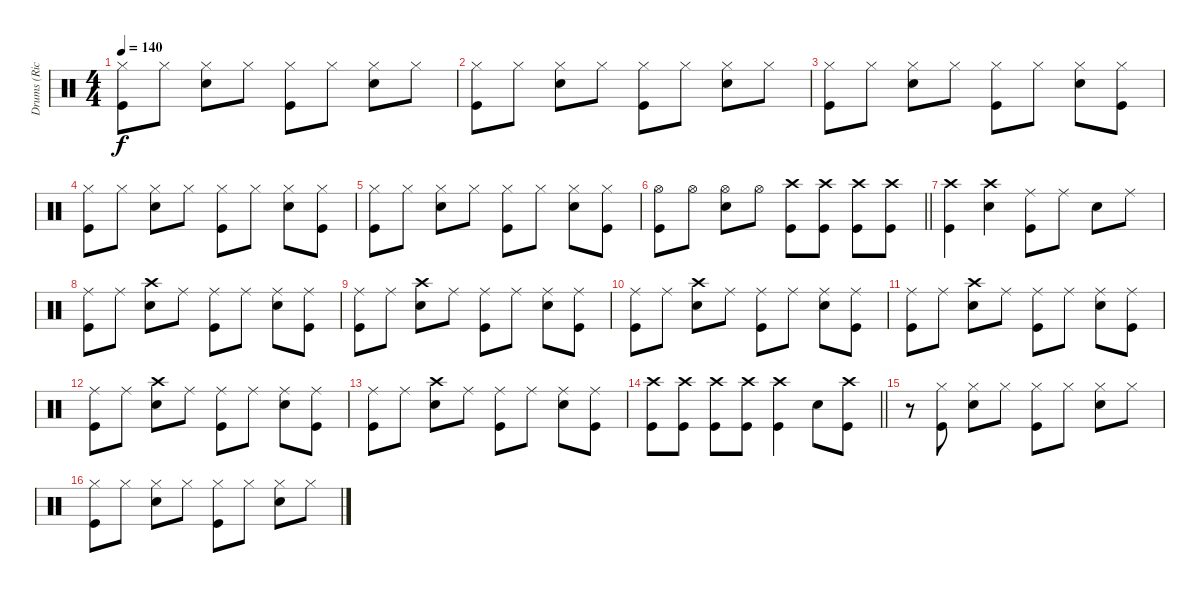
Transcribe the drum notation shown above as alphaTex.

\track ("Drums (Rick)" "Drums (Ric") {instrument percussion}
\staff {score}
\articulation defaults
\ts (4 4)
\tempo 140
\clef neutral
\ks aminor
("Hi-Hat (closed)" "Kick (hit)").8{dy f} "Hi-Hat (closed)".8 ("Hi-Hat (closed)" "Snare (hit) 2").8 "Hi-Hat (closed)".8 ("Hi-Hat (closed)" "Kick (hit)").8 "Hi-Hat (closed)".8 ("Hi-Hat (closed)" "Snare (hit) 2").8 "Hi-Hat (closed)".8 |
("Hi-Hat (closed)" "Kick (hit)").8 "Hi-Hat (closed)".8 ("Hi-Hat (closed)" "Snare (hit) 2").8 "Hi-Hat (closed)".8 ("Hi-Hat (closed)" "Kick (hit)").8 "Hi-Hat (closed)".8 ("Hi-Hat (closed)" "Snare (hit) 2").8 "Hi-Hat (closed)".8 |
("Hi-Hat (closed)" "Kick (hit)").8 "Hi-Hat (closed)".8 ("Hi-Hat (closed)" "Snare (hit) 2").8 "Hi-Hat (closed)".8 ("Hi-Hat (closed)" "Kick (hit)").8 "Hi-Hat (closed)".8 ("Hi-Hat (closed)" "Snare (hit) 2").8 ("Hi-Hat (closed)" "Kick (hit)").8 |
("Hi-Hat (closed)" "Kick (hit)").8 "Hi-Hat (closed)".8 ("Hi-Hat (closed)" "Snare (hit) 2").8 "Hi-Hat (closed)".8 ("Hi-Hat (closed)" "Kick (hit)").8 "Hi-Hat (closed)".8 ("Hi-Hat (closed)" "Snare (hit) 2").8 ("Hi-Hat (closed)" "Kick (hit)").8 |
("Hi-Hat (closed)" "Kick (hit)").8 "Hi-Hat (closed)".8 ("Hi-Hat (closed)" "Snare (hit) 2").8 "Hi-Hat (closed)".8 ("Hi-Hat (closed)" "Kick (hit)").8 "Hi-Hat (closed)".8 ("Hi-Hat (closed)" "Snare (hit) 2").8 ("Hi-Hat (closed)" "Kick (hit)").8 |
\barLineRight lightlight
("Hi-Hat (open)" "Kick (hit)").8 "Hi-Hat (open)".8 ("Hi-Hat (open)" "Snare (hit) 2").8 "Hi-Hat (open)".8 ("Crash high (hit)" "Kick (hit)").8 ("Crash high (hit)" "Kick (hit)").8 ("Crash high (hit)" "Kick (hit)").8 ("Crash high (hit)" "Kick (hit)").8 |
("Crash high (hit)" "Kick (hit)").4 ("Crash high (hit)" "Snare (hit) 2").4 ("Ride (middle)" "Kick (hit)").8 "Ride (middle)".8 "Snare (hit) 2".8 "Ride (middle)".8 |
("Ride (middle)" "Kick (hit)").8 "Ride (middle)".8 ("Crash high (hit)" "Snare (hit) 2").8 "Ride (middle)".8 ("Ride (middle)" "Kick (hit)").8 "Ride (middle)".8 ("Ride (middle)" "Snare (hit) 2").8 ("Ride (middle)" "Kick (hit)").8 |
("Ride (middle)" "Kick (hit)").8 "Ride (middle)".8 ("Crash high (hit)" "Snare (hit) 2").8 "Ride (middle)".8 ("Ride (middle)" "Kick (hit)").8 "Ride (middle)".8 ("Ride (middle)" "Snare (hit) 2").8 ("Ride (middle)" "Kick (hit)").8 |
("Ride (middle)" "Kick (hit)").8 "Ride (middle)".8 ("Crash high (hit)" "Snare (hit) 2").8 "Ride (middle)".8 ("Ride (middle)" "Kick (hit)").8 "Ride (middle)".8 ("Ride (middle)" "Snare (hit) 2").8 ("Ride (middle)" "Kick (hit)").8 |
("Ride (middle)" "Kick (hit)").8 "Ride (middle)".8 ("Crash high (hit)" "Snare (hit) 2").8 "Ride (middle)".8 ("Ride (middle)" "Kick (hit)").8 "Ride (middle)".8 ("Ride (middle)" "Snare (hit) 2").8 ("Ride (middle)" "Kick (hit)").8 |
("Ride (middle)" "Kick (hit)").8 "Ride (middle)".8 ("Crash high (hit)" "Snare (hit) 2").8 "Ride (middle)".8 ("Ride (middle)" "Kick (hit)").8 "Ride (middle)".8 ("Ride (middle)" "Snare (hit) 2").8 ("Ride (middle)" "Kick (hit)").8 |
("Ride (middle)" "Kick (hit)").8 "Ride (middle)".8 ("Crash high (hit)" "Snare (hit) 2").8 "Ride (middle)".8 ("Ride (middle)" "Kick (hit)").8 "Ride (middle)".8 ("Ride (middle)" "Snare (hit) 2").8 ("Ride (middle)" "Kick (hit)").8 |
\barLineRight lightlight
("Crash high (hit)" "Kick (hit)").8 ("Crash high (hit)" "Kick (hit)").8 ("Crash high (hit)" "Kick (hit)").8 ("Crash high (hit)" "Kick (hit)").8 ("Crash high (hit)" "Kick (hit)").4 "Snare (hit) 2".8 ("Crash high (hit)" "Kick (hit)").8 |
r.8 ("Hi-Hat (closed)" "Kick (hit)").8 ("Hi-Hat (closed)" "Snare (hit) 2").8 "Hi-Hat (closed)".8 ("Hi-Hat (closed)" "Kick (hit)").8 "Hi-Hat (closed)".8 ("Hi-Hat (closed)" "Snare (hit) 2").8 "Hi-Hat (closed)".8 |
("Hi-Hat (closed)" "Kick (hit)").8 "Hi-Hat (closed)".8 ("Hi-Hat (closed)" "Snare (hit) 2").8 "Hi-Hat (closed)".8 ("Hi-Hat (closed)" "Kick (hit)").8 "Hi-Hat (closed)".8 ("Hi-Hat (closed)" "Snare (hit) 2").8 "Hi-Hat (closed)".8
